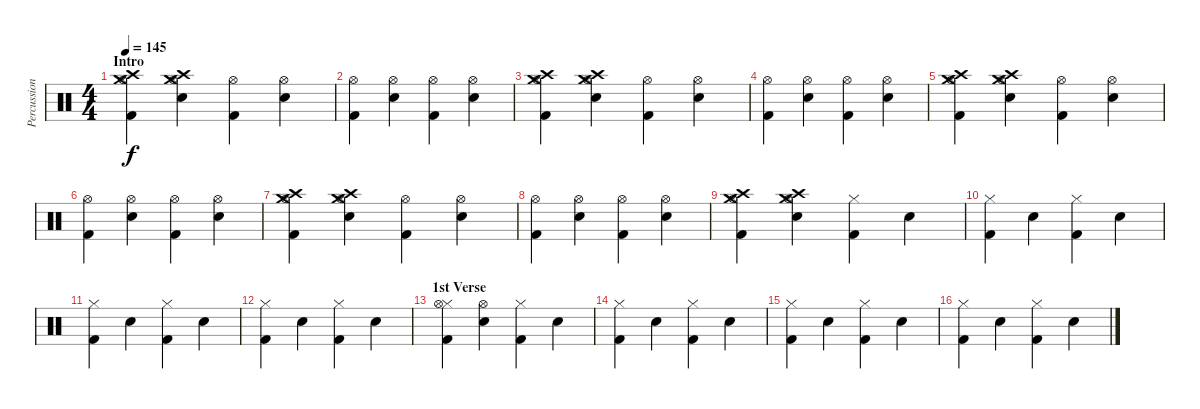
\track ("Percussions" "Percussion") {instrument percussion}
\staff {score}
\articulation defaults
\ts (4 4)
\section ("" "Intro")
\tempo 145
\clef neutral
\ks c
("Kick (hit) 2" "Hi-Hat (open)" "Crash medium (hit)" "Crash high (hit)").4{dy f} ("Snare (hit) 2" "Hi-Hat (open)" "Crash medium (hit)" "Crash high (hit)").4 ("Kick (hit) 2" "Hi-Hat (open)").4 ("Snare (hit) 2" "Hi-Hat (open)").4 |
("Kick (hit) 2" "Hi-Hat (open)").4 ("Snare (hit) 2" "Hi-Hat (open)").4 ("Kick (hit) 2" "Hi-Hat (open)").4 ("Snare (hit) 2" "Hi-Hat (open)").4 |
("Kick (hit) 2" "Hi-Hat (open)" "Crash medium (hit)" "Crash high (hit)").4 ("Snare (hit) 2" "Hi-Hat (open)" "Crash medium (hit)" "Crash high (hit)").4 ("Kick (hit) 2" "Hi-Hat (open)").4 ("Snare (hit) 2" "Hi-Hat (open)").4 |
("Kick (hit) 2" "Hi-Hat (open)").4 ("Snare (hit) 2" "Hi-Hat (open)").4 ("Kick (hit) 2" "Hi-Hat (open)").4 ("Snare (hit) 2" "Hi-Hat (open)").4 |
("Kick (hit) 2" "Hi-Hat (open)" "Crash medium (hit)" "Crash high (hit)").4 ("Snare (hit) 2" "Hi-Hat (open)" "Crash medium (hit)" "Crash high (hit)").4 ("Kick (hit) 2" "Hi-Hat (open)").4 ("Snare (hit) 2" "Hi-Hat (open)").4 |
("Kick (hit) 2" "Hi-Hat (open)").4 ("Snare (hit) 2" "Hi-Hat (open)").4 ("Kick (hit) 2" "Hi-Hat (open)").4 ("Snare (hit) 2" "Hi-Hat (open)").4 |
("Kick (hit) 2" "Hi-Hat (open)" "Crash medium (hit)" "Crash high (hit)").4 ("Snare (hit) 2" "Hi-Hat (open)" "Crash medium (hit)" "Crash high (hit)").4 ("Kick (hit) 2" "Hi-Hat (open)").4 ("Snare (hit) 2" "Hi-Hat (open)").4 |
("Kick (hit) 2" "Hi-Hat (open)").4 ("Snare (hit) 2" "Hi-Hat (open)").4 ("Kick (hit) 2" "Hi-Hat (open)").4 ("Snare (hit) 2" "Hi-Hat (open)").4 |
("Kick (hit) 2" "Hi-Hat (open)" "Crash medium (hit)" "Crash high (hit)").4 ("Snare (hit) 2" "Hi-Hat (open)" "Crash medium (hit)" "Crash high (hit)").4 ("Kick (hit) 2" "Hi-Hat (closed)").4 "Snare (hit) 2".4 |
("Kick (hit) 2" "Hi-Hat (closed)").4 "Snare (hit) 2".4 ("Kick (hit) 2" "Hi-Hat (closed)").4 "Snare (hit) 2".4 |
("Kick (hit) 2" "Hi-Hat (closed)").4 "Snare (hit) 2".4 ("Kick (hit) 2" "Hi-Hat (closed)").4 "Snare (hit) 2".4 |
("Kick (hit) 2" "Hi-Hat (closed)").4 "Snare (hit) 2".4 ("Kick (hit) 2" "Hi-Hat (closed)").4 "Snare (hit) 2".4 |
\section ("" "1st Verse")
("Kick (hit) 2" "Hi-Hat (closed)" "Hi-Hat (open)").4 ("Snare (hit) 2" "Hi-Hat (open)").4 ("Kick (hit) 2" "Hi-Hat (closed)").4 "Snare (hit) 2".4 |
("Kick (hit) 2" "Hi-Hat (closed)").4 "Snare (hit) 2".4 ("Kick (hit) 2" "Hi-Hat (closed)").4 "Snare (hit) 2".4 |
("Kick (hit) 2" "Hi-Hat (closed)").4 "Snare (hit) 2".4 ("Kick (hit) 2" "Hi-Hat (closed)").4 "Snare (hit) 2".4 |
("Kick (hit) 2" "Hi-Hat (closed)").4 "Snare (hit) 2".4 ("Kick (hit) 2" "Hi-Hat (closed)").4 "Snare (hit) 2".4
